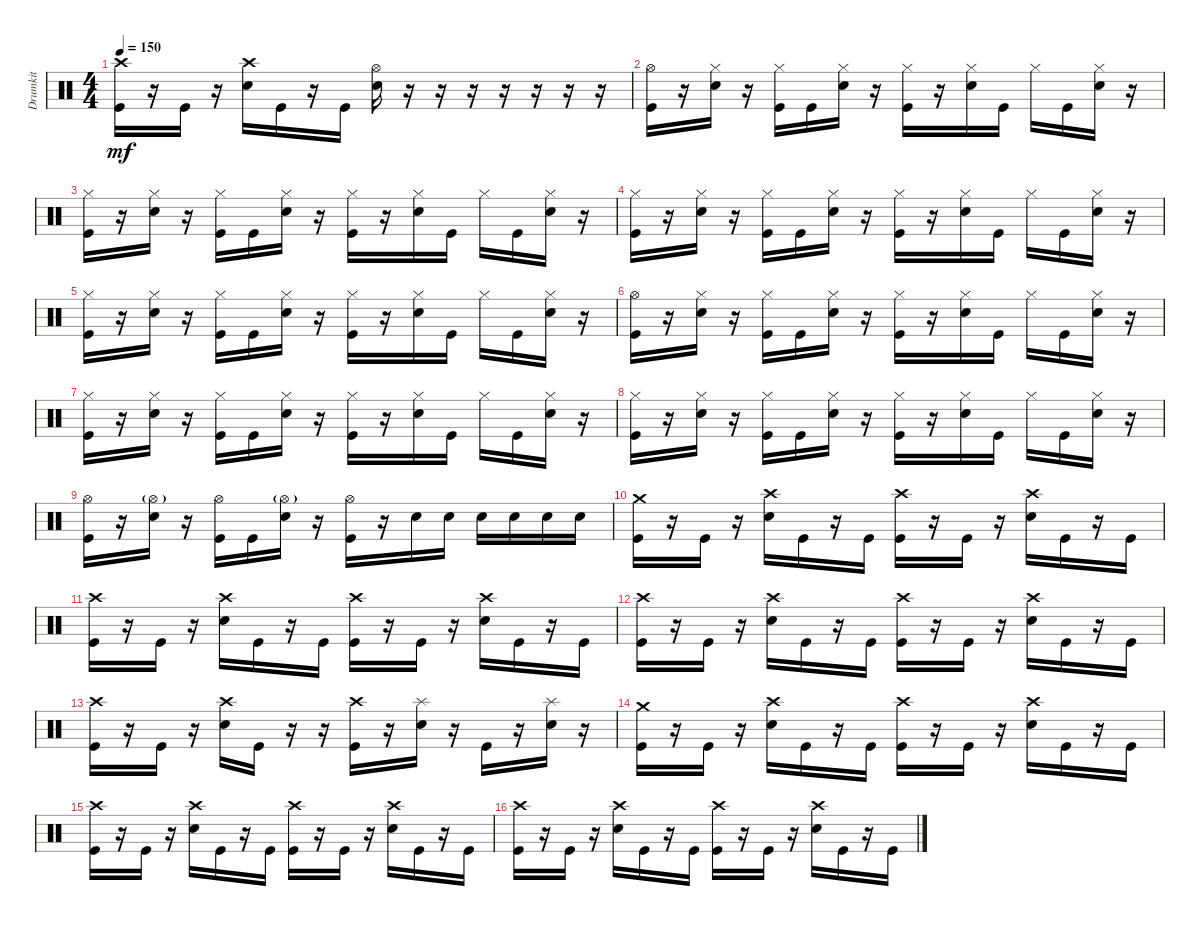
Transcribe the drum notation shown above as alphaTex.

\track ("Drumkit" "Drumkit") {instrument percussion}
\staff {score}
\articulation defaults
\ts (4 4)
\tempo 150
\clef neutral
\ks c
("Kick (hit)" "Crash high (hit)").16{dy mf} r.16 "Kick (hit)".16 r.16 ("Crash high (hit)" "Snare (hit) 2").16 "Kick (hit)".16 r.16 "Kick (hit)".16 ("Snare (hit) 2" "Hi-Hat (open)").16 r.16 r.16 r.16 r.16 r.16 r.16 r.16 |
("Hi-Hat (open)" "Kick (hit)").16 r.16 ("Hi-Hat (closed)" "Snare (hit) 2").16 r.16 ("Hi-Hat (closed)" "Kick (hit)").16 "Kick (hit)".16 ("Hi-Hat (closed)" "Snare (hit) 2").16 r.16 ("Hi-Hat (closed)" "Kick (hit)").16 r.16 ("Hi-Hat (closed)" "Snare (hit) 2").16 "Kick (hit)".16 "Hi-Hat (closed)".16 "Kick (hit)".16 ("Hi-Hat (closed)" "Snare (hit) 2").16 r.16 |
("Kick (hit)" "Hi-Hat (closed)").16 r.16 ("Hi-Hat (closed)" "Snare (hit) 2").16 r.16 ("Hi-Hat (closed)" "Kick (hit)").16 "Kick (hit)".16 ("Hi-Hat (closed)" "Snare (hit) 2").16 r.16 ("Hi-Hat (closed)" "Kick (hit)").16 r.16 ("Hi-Hat (closed)" "Snare (hit) 2").16 "Kick (hit)".16 "Hi-Hat (closed)".16 "Kick (hit)".16 ("Hi-Hat (closed)" "Snare (hit) 2").16 r.16 |
("Kick (hit)" "Hi-Hat (closed)").16 r.16 ("Hi-Hat (closed)" "Snare (hit) 2").16 r.16 ("Hi-Hat (closed)" "Kick (hit)").16 "Kick (hit)".16 ("Hi-Hat (closed)" "Snare (hit) 2").16 r.16 ("Hi-Hat (closed)" "Kick (hit)").16 r.16 ("Hi-Hat (closed)" "Snare (hit) 2").16 "Kick (hit)".16 "Hi-Hat (closed)".16 "Kick (hit)".16 ("Hi-Hat (closed)" "Snare (hit) 2").16 r.16 |
("Kick (hit)" "Hi-Hat (closed)").16 r.16 ("Hi-Hat (closed)" "Snare (hit) 2").16 r.16 ("Hi-Hat (closed)" "Kick (hit)").16 "Kick (hit)".16 ("Hi-Hat (closed)" "Snare (hit) 2").16 r.16 ("Hi-Hat (closed)" "Kick (hit)").16 r.16 ("Hi-Hat (closed)" "Snare (hit) 2").16 "Kick (hit)".16 "Hi-Hat (closed)".16 "Kick (hit)".16 ("Hi-Hat (closed)" "Snare (hit) 2").16 r.16 |
("Kick (hit)" "Hi-Hat (open)").16 r.16 ("Hi-Hat (closed)" "Snare (hit) 2").16 r.16 ("Hi-Hat (closed)" "Kick (hit)").16 "Kick (hit)".16 ("Hi-Hat (closed)" "Snare (hit) 2").16 r.16 ("Hi-Hat (closed)" "Kick (hit)").16 r.16 ("Hi-Hat (closed)" "Snare (hit) 2").16 "Kick (hit)".16 "Hi-Hat (closed)".16 "Kick (hit)".16 ("Hi-Hat (closed)" "Snare (hit) 2").16 r.16 |
("Kick (hit)" "Hi-Hat (closed)").16 r.16 ("Hi-Hat (closed)" "Snare (hit) 2").16 r.16 ("Hi-Hat (closed)" "Kick (hit)").16 "Kick (hit)".16 ("Hi-Hat (closed)" "Snare (hit) 2").16 r.16 ("Hi-Hat (closed)" "Kick (hit)").16 r.16 ("Hi-Hat (closed)" "Snare (hit) 2").16 "Kick (hit)".16 "Hi-Hat (closed)".16 "Kick (hit)".16 ("Hi-Hat (closed)" "Snare (hit) 2").16 r.16 |
("Kick (hit)" "Hi-Hat (closed)").16 r.16 ("Hi-Hat (closed)" "Snare (hit) 2").16 r.16 ("Hi-Hat (closed)" "Kick (hit)").16 "Kick (hit)".16 ("Hi-Hat (closed)" "Snare (hit) 2").16 r.16 ("Hi-Hat (closed)" "Kick (hit)").16 r.16 ("Hi-Hat (closed)" "Snare (hit) 2").16 "Kick (hit)".16 "Hi-Hat (closed)".16 "Kick (hit)".16 ("Hi-Hat (closed)" "Snare (hit) 2").16 r.16 |
("Kick (hit)" "Hi-Hat (open)").16 r.16 ("Snare (hit) 2" "Hi-Hat (open)"{g}).16 r.16 ("Kick (hit)" "Hi-Hat (open)").16 "Kick (hit)".16 ("Snare (hit) 2" "Hi-Hat (open)"{g}).16 r.16 ("Kick (hit)" "Hi-Hat (open)").16 r.16 "Snare (hit) 2".16 "Snare (hit) 2".16 "Snare (hit) 2".16 "Snare (hit) 2".16 "Snare (hit) 2".16 "Snare (hit) 2".16 |
("Kick (hit)" "Crash medium (hit)").16 r.16 "Kick (hit)".16 r.16 ("Snare (hit) 2" "Crash high (hit)").16 "Kick (hit)".16 r.16 "Kick (hit)".16 ("Kick (hit)" "Crash high (hit)").16 r.16 "Kick (hit)".16 r.16 ("Snare (hit) 2" "Crash high (hit)").16 "Kick (hit)".16 r.16 "Kick (hit)".16 |
("Kick (hit)" "Crash high (hit)").16 r.16 "Kick (hit)".16 r.16 ("Snare (hit) 2" "Crash high (hit)").16 "Kick (hit)".16 r.16 "Kick (hit)".16 ("Kick (hit)" "Crash high (hit)").16 r.16 "Kick (hit)".16 r.16 ("Snare (hit) 2" "Crash high (hit)").16 "Kick (hit)".16 r.16 "Kick (hit)".16 |
("Crash high (hit)" "Kick (hit)").16 r.16 "Kick (hit)".16 r.16 ("Snare (hit) 2" "Crash high (hit)").16 "Kick (hit)".16 r.16 "Kick (hit)".16 ("Kick (hit)" "Crash high (hit)").16 r.16 "Kick (hit)".16 r.16 ("Snare (hit) 2" "Crash high (hit)").16 "Kick (hit)".16 r.16 "Kick (hit)".16 |
("Kick (hit)" "Crash high (hit)").16 r.16 "Kick (hit)".16 r.16 ("Snare (hit) 2" "Crash high (hit)").16 "Kick (hit)".16 r.16 r.16 ("Kick (hit)" "Crash high (hit)").16 r.16 ("Snare (hit) 2" "Splash (hit)").16 r.16 "Kick (hit)".16 r.16 ("Snare (hit) 2" "Splash (hit)").16 r.16 |
("Kick (hit)" "Crash medium (hit)").16 r.16 "Kick (hit)".16 r.16 ("Snare (hit) 2" "Crash high (hit)").16 "Kick (hit)".16 r.16 "Kick (hit)".16 ("Kick (hit)" "Crash high (hit)").16 r.16 "Kick (hit)".16 r.16 ("Snare (hit) 2" "Crash high (hit)").16 "Kick (hit)".16 r.16 "Kick (hit)".16 |
("Kick (hit)" "Crash high (hit)").16 r.16 "Kick (hit)".16 r.16 ("Snare (hit) 2" "Crash high (hit)").16 "Kick (hit)".16 r.16 "Kick (hit)".16 ("Kick (hit)" "Crash high (hit)").16 r.16 "Kick (hit)".16 r.16 ("Snare (hit) 2" "Crash high (hit)").16 "Kick (hit)".16 r.16 "Kick (hit)".16 |
("Crash high (hit)" "Kick (hit)").16 r.16 "Kick (hit)".16 r.16 ("Snare (hit) 2" "Crash high (hit)").16 "Kick (hit)".16 r.16 "Kick (hit)".16 ("Kick (hit)" "Crash high (hit)").16 r.16 "Kick (hit)".16 r.16 ("Snare (hit) 2" "Crash high (hit)").16 "Kick (hit)".16 r.16 "Kick (hit)".16
